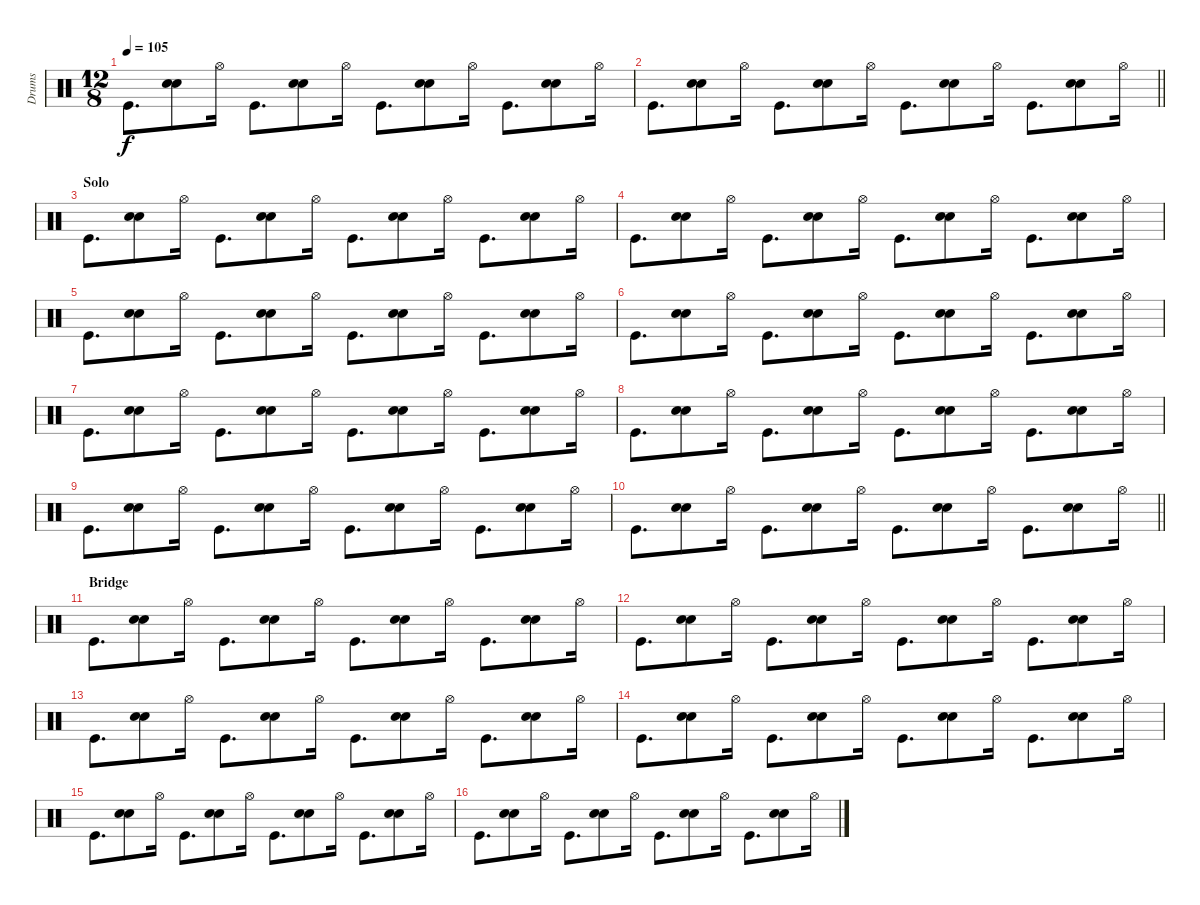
\track ("Drums" "Drums") {instrument percussion}
\staff {score}
\articulation defaults
\ts (12 8)
\tempo 105
\clef neutral
\ks c "Kick (hit)".8{d dy f}
("Hand Clap (hit)" "Electric Snare (hit)").8 "Hi-Hat (open)".16 "Kick (hit)".8{d} ("Hand Clap (hit)" "Electric Snare (hit)").8 "Hi-Hat (open)".16 "Kick (hit)".8{d} ("Hand Clap (hit)" "Electric Snare (hit)").8 "Hi-Hat (open)".16 "Kick (hit)".8{d} ("Hand Clap (hit)" "Electric Snare (hit)").8 "Hi-Hat (open)".16 |
\barLineRight lightlight "Kick (hit)".8{d}
("Hand Clap (hit)" "Electric Snare (hit)").8 "Hi-Hat (open)".16 "Kick (hit)".8{d} ("Hand Clap (hit)" "Electric Snare (hit)").8 "Hi-Hat (open)".16 "Kick (hit)".8{d} ("Hand Clap (hit)" "Electric Snare (hit)").8 "Hi-Hat (open)".16 "Kick (hit)".8{d} ("Hand Clap (hit)" "Electric Snare (hit)").8 "Hi-Hat (open)".16 |
\section ("" "Solo")
"Kick (hit)".8{d} ("Hand Clap (hit)" "Electric Snare (hit)").8 "Hi-Hat (open)".16 "Kick (hit)".8{d} ("Hand Clap (hit)" "Electric Snare (hit)").8 "Hi-Hat (open)".16 "Kick (hit)".8{d} ("Hand Clap (hit)" "Electric Snare (hit)").8 "Hi-Hat (open)".16 "Kick (hit)".8{d} ("Hand Clap (hit)" "Electric Snare (hit)").8 "Hi-Hat (open)".16 |
"Kick (hit)".8{d} ("Hand Clap (hit)" "Electric Snare (hit)").8 "Hi-Hat (open)".16 "Kick (hit)".8{d} ("Hand Clap (hit)" "Electric Snare (hit)").8 "Hi-Hat (open)".16 "Kick (hit)".8{d} ("Hand Clap (hit)" "Electric Snare (hit)").8 "Hi-Hat (open)".16 "Kick (hit)".8{d} ("Hand Clap (hit)" "Electric Snare (hit)").8 "Hi-Hat (open)".16 |
"Kick (hit)".8{d} ("Hand Clap (hit)" "Electric Snare (hit)").8 "Hi-Hat (open)".16 "Kick (hit)".8{d} ("Hand Clap (hit)" "Electric Snare (hit)").8 "Hi-Hat (open)".16 "Kick (hit)".8{d} ("Hand Clap (hit)" "Electric Snare (hit)").8 "Hi-Hat (open)".16 "Kick (hit)".8{d} ("Hand Clap (hit)" "Electric Snare (hit)").8 "Hi-Hat (open)".16 |
"Kick (hit)".8{d} ("Hand Clap (hit)" "Electric Snare (hit)").8 "Hi-Hat (open)".16 "Kick (hit)".8{d} ("Hand Clap (hit)" "Electric Snare (hit)").8 "Hi-Hat (open)".16 "Kick (hit)".8{d} ("Hand Clap (hit)" "Electric Snare (hit)").8 "Hi-Hat (open)".16 "Kick (hit)".8{d} ("Hand Clap (hit)" "Electric Snare (hit)").8 "Hi-Hat (open)".16 |
"Kick (hit)".8{d} ("Hand Clap (hit)" "Electric Snare (hit)").8 "Hi-Hat (open)".16 "Kick (hit)".8{d} ("Hand Clap (hit)" "Electric Snare (hit)").8 "Hi-Hat (open)".16 "Kick (hit)".8{d} ("Hand Clap (hit)" "Electric Snare (hit)").8 "Hi-Hat (open)".16 "Kick (hit)".8{d} ("Hand Clap (hit)" "Electric Snare (hit)").8 "Hi-Hat (open)".16 |
"Kick (hit)".8{d} ("Hand Clap (hit)" "Electric Snare (hit)").8 "Hi-Hat (open)".16 "Kick (hit)".8{d} ("Hand Clap (hit)" "Electric Snare (hit)").8 "Hi-Hat (open)".16 "Kick (hit)".8{d} ("Hand Clap (hit)" "Electric Snare (hit)").8 "Hi-Hat (open)".16 "Kick (hit)".8{d} ("Hand Clap (hit)" "Electric Snare (hit)").8 "Hi-Hat (open)".16 |
"Kick (hit)".8{d} ("Hand Clap (hit)" "Electric Snare (hit)").8 "Hi-Hat (open)".16 "Kick (hit)".8{d} ("Hand Clap (hit)" "Electric Snare (hit)").8 "Hi-Hat (open)".16 "Kick (hit)".8{d} ("Hand Clap (hit)" "Electric Snare (hit)").8 "Hi-Hat (open)".16 "Kick (hit)".8{d} ("Hand Clap (hit)" "Electric Snare (hit)").8 "Hi-Hat (open)".16 |
\barLineRight lightlight "Kick (hit)".8{d}
("Hand Clap (hit)" "Electric Snare (hit)").8 "Hi-Hat (open)".16 "Kick (hit)".8{d} ("Hand Clap (hit)" "Electric Snare (hit)").8 "Hi-Hat (open)".16 "Kick (hit)".8{d} ("Hand Clap (hit)" "Electric Snare (hit)").8 "Hi-Hat (open)".16 "Kick (hit)".8{d} ("Hand Clap (hit)" "Electric Snare (hit)").8 "Hi-Hat (open)".16 |
\section ("" "Bridge")
"Kick (hit)".8{d} ("Hand Clap (hit)" "Electric Snare (hit)").8 "Hi-Hat (open)".16 "Kick (hit)".8{d} ("Hand Clap (hit)" "Electric Snare (hit)").8 "Hi-Hat (open)".16 "Kick (hit)".8{d} ("Hand Clap (hit)" "Electric Snare (hit)").8 "Hi-Hat (open)".16 "Kick (hit)".8{d} ("Hand Clap (hit)" "Electric Snare (hit)").8 "Hi-Hat (open)".16 |
"Kick (hit)".8{d} ("Hand Clap (hit)" "Electric Snare (hit)").8 "Hi-Hat (open)".16 "Kick (hit)".8{d} ("Hand Clap (hit)" "Electric Snare (hit)").8 "Hi-Hat (open)".16 "Kick (hit)".8{d} ("Hand Clap (hit)" "Electric Snare (hit)").8 "Hi-Hat (open)".16 "Kick (hit)".8{d} ("Hand Clap (hit)" "Electric Snare (hit)").8 "Hi-Hat (open)".16 |
"Kick (hit)".8{d} ("Hand Clap (hit)" "Electric Snare (hit)").8 "Hi-Hat (open)".16 "Kick (hit)".8{d} ("Hand Clap (hit)" "Electric Snare (hit)").8 "Hi-Hat (open)".16 "Kick (hit)".8{d} ("Hand Clap (hit)" "Electric Snare (hit)").8 "Hi-Hat (open)".16 "Kick (hit)".8{d} ("Hand Clap (hit)" "Electric Snare (hit)").8 "Hi-Hat (open)".16 |
"Kick (hit)".8{d} ("Hand Clap (hit)" "Electric Snare (hit)").8 "Hi-Hat (open)".16 "Kick (hit)".8{d} ("Hand Clap (hit)" "Electric Snare (hit)").8 "Hi-Hat (open)".16 "Kick (hit)".8{d} ("Hand Clap (hit)" "Electric Snare (hit)").8 "Hi-Hat (open)".16 "Kick (hit)".8{d} ("Hand Clap (hit)" "Electric Snare (hit)").8 "Hi-Hat (open)".16 |
"Kick (hit)".8{d} ("Hand Clap (hit)" "Electric Snare (hit)").8 "Hi-Hat (open)".16 "Kick (hit)".8{d} ("Hand Clap (hit)" "Electric Snare (hit)").8 "Hi-Hat (open)".16 "Kick (hit)".8{d} ("Hand Clap (hit)" "Electric Snare (hit)").8 "Hi-Hat (open)".16 "Kick (hit)".8{d} ("Hand Clap (hit)" "Electric Snare (hit)").8 "Hi-Hat (open)".16 |
"Kick (hit)".8{d} ("Hand Clap (hit)" "Electric Snare (hit)").8 "Hi-Hat (open)".16 "Kick (hit)".8{d} ("Hand Clap (hit)" "Electric Snare (hit)").8 "Hi-Hat (open)".16 "Kick (hit)".8{d} ("Hand Clap (hit)" "Electric Snare (hit)").8 "Hi-Hat (open)".16 "Kick (hit)".8{d} ("Hand Clap (hit)" "Electric Snare (hit)").8 "Hi-Hat (open)".16
